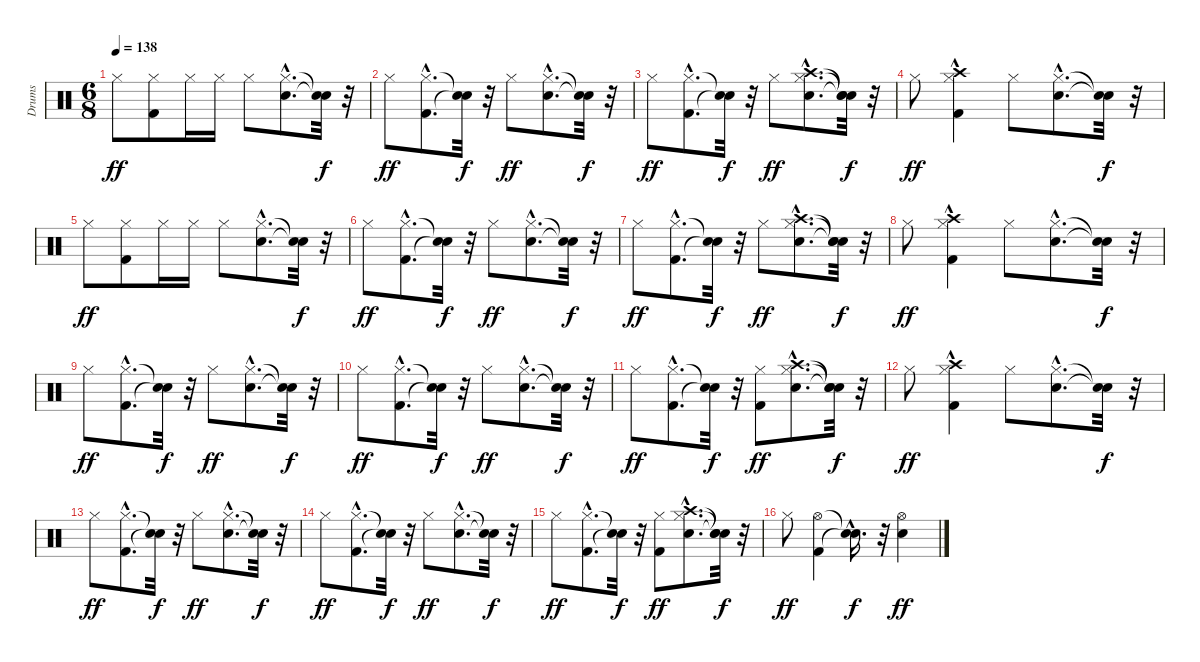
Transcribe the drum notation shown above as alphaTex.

\track ("Drums" "Drums") {instrument percussion}
\staff {score}
\articulation defaults
\ts (6 8)
\tempo 138
\clef neutral
\ks c "Hi-Hat (closed)".8{dy ff}
("Kick (hit) 2" "Hi-Hat (closed)").8 "Hi-Hat (closed)".16 "Hi-Hat (closed)".16 "Hi-Hat (closed)".8 ("Snare (hit) 2"{hac} "Hi-Hat (closed)"{hac}).8{d} ("Snare (hit)"{t} "Snare (hit)"{t}).32{dy f} r.32 |
"Hi-Hat (closed)".8{dy ff} ("Kick (hit) 2"{hac} "Hi-Hat (closed)"{hac}).8{d} ("Snare (hit)"{t} "Snare (hit)"{t}).32{dy f} r.32 "Hi-Hat (closed)".8{dy ff} ("Snare (hit) 2"{hac} "Hi-Hat (closed)"{hac}).8{d} ("Snare (hit)"{t} "Snare (hit)"{t}).32{dy f} r.32 |
"Hi-Hat (closed)".8{dy ff} ("Kick (hit) 2"{hac} "Hi-Hat (closed)"{hac}).8{d} ("Snare (hit)"{t} "Snare (hit)"{t}).32{dy f} r.32 "Hi-Hat (closed)".8{dy ff} ("Snare (hit) 2"{hac} "Hi-Hat (closed)"{hac} "Crash high (hit)"{hac}).8{d} ("Snare (hit)"{t} "Snare (hit)"{t} "Snare (hit)"{t}).32{dy f} r.32 |
"Hi-Hat (closed)".8{dy ff} ("Kick (hit) 2"{hac} "Hi-Hat (closed)"{hac} "Crash high (hit)").4 "Hi-Hat (closed)".8 ("Snare (hit) 2"{hac} "Hi-Hat (closed)"{hac}).8{d} ("Snare (hit)"{t} "Snare (hit)"{t}).32{dy f} r.32 |
"Hi-Hat (closed)".8{dy ff} ("Kick (hit) 2" "Hi-Hat (closed)").8 "Hi-Hat (closed)".16 "Hi-Hat (closed)".16 "Hi-Hat (closed)".8 ("Snare (hit) 2"{hac} "Hi-Hat (closed)"{hac}).8{d} ("Snare (hit)"{t} "Snare (hit)"{t}).32{dy f} r.32 |
"Hi-Hat (closed)".8{dy ff} ("Kick (hit) 2"{hac} "Hi-Hat (closed)"{hac}).8{d} ("Snare (hit)"{t} "Snare (hit)"{t}).32{dy f} r.32 "Hi-Hat (closed)".8{dy ff} ("Snare (hit) 2"{hac} "Hi-Hat (closed)"{hac}).8{d} ("Snare (hit)"{t} "Snare (hit)"{t}).32{dy f} r.32 |
"Hi-Hat (closed)".8{dy ff} ("Kick (hit) 2"{hac} "Hi-Hat (closed)"{hac}).8{d} ("Snare (hit)"{t} "Snare (hit)"{t}).32{dy f} r.32 "Hi-Hat (closed)".8{dy ff} ("Snare (hit) 2"{hac} "Hi-Hat (closed)"{hac} "Crash high (hit)"{hac}).8{d} ("Snare (hit)"{t} "Snare (hit)"{t} "Snare (hit)"{t}).32{dy f} r.32 |
"Hi-Hat (closed)".8{dy ff} ("Kick (hit) 2"{hac} "Hi-Hat (closed)"{hac} "Crash high (hit)").4 "Hi-Hat (closed)".8 ("Snare (hit) 2"{hac} "Hi-Hat (closed)"{hac}).8{d} ("Snare (hit)"{t} "Snare (hit)"{t}).32{dy f} r.32 |
"Hi-Hat (closed)".8{dy ff} ("Kick (hit) 2"{hac} "Hi-Hat (closed)"{hac}).8{d} ("Snare (hit)"{t} "Snare (hit)"{t}).32{dy f} r.32 "Hi-Hat (closed)".8{dy ff} ("Snare (hit) 2"{hac} "Hi-Hat (closed)"{hac}).8{d} ("Snare (hit)"{t} "Snare (hit)"{t}).32{dy f} r.32 |
"Hi-Hat (closed)".8{dy ff} ("Kick (hit) 2"{hac} "Hi-Hat (closed)"{hac}).8{d} ("Snare (hit)"{t} "Snare (hit)"{t}).32{dy f} r.32 "Hi-Hat (closed)".8{dy ff} ("Snare (hit) 2"{hac} "Hi-Hat (closed)"{hac}).8{d} ("Snare (hit)"{t} "Snare (hit)"{t}).32{dy f} r.32 |
"Hi-Hat (closed)".8{dy ff} ("Kick (hit) 2"{hac} "Hi-Hat (closed)"{hac}).8{d} ("Snare (hit)"{t} "Snare (hit)"{t}).32{dy f} r.32 ("Kick (hit) 2" "Hi-Hat (closed)").8{dy ff} ("Snare (hit) 2"{hac} "Hi-Hat (closed)"{hac} "Crash high (hit)"{hac}).8{d} ("Snare (hit)"{t} "Snare (hit)"{t} "Snare (hit)"{t}).32{dy f} r.32 |
"Hi-Hat (closed)".8{dy ff} ("Kick (hit) 2"{hac} "Hi-Hat (closed)"{hac} "Crash high (hit)").4 "Hi-Hat (closed)".8 ("Snare (hit) 2"{hac} "Hi-Hat (closed)"{hac}).8{d} ("Snare (hit)"{t} "Snare (hit)"{t}).32{dy f} r.32 |
"Hi-Hat (closed)".8{dy ff} ("Kick (hit) 2"{hac} "Hi-Hat (closed)"{hac}).8{d} ("Snare (hit)"{t} "Snare (hit)"{t}).32{dy f} r.32 "Hi-Hat (closed)".8{dy ff} ("Snare (hit) 2"{hac} "Hi-Hat (closed)"{hac}).8{d} ("Snare (hit)"{t} "Snare (hit)"{t}).32{dy f} r.32 |
"Hi-Hat (closed)".8{dy ff} ("Kick (hit) 2"{hac} "Hi-Hat (closed)"{hac}).8{d} ("Snare (hit)"{t} "Snare (hit)"{t}).32{dy f} r.32 "Hi-Hat (closed)".8{dy ff} ("Snare (hit) 2"{hac} "Hi-Hat (closed)"{hac}).8{d} ("Snare (hit)"{t} "Snare (hit)"{t}).32{dy f} r.32 |
"Hi-Hat (closed)".8{dy ff} ("Kick (hit) 2"{hac} "Hi-Hat (closed)"{hac}).8{d} ("Snare (hit)"{t} "Snare (hit)"{t}).32{dy f} r.32 ("Kick (hit) 2" "Hi-Hat (closed)").8{dy ff} ("Snare (hit) 2"{hac} "Hi-Hat (closed)"{hac} "Crash high (hit)"{hac}).8{d} ("Snare (hit)"{t} "Snare (hit)"{t} "Snare (hit)"{t}).32{dy f} r.32 |
"Hi-Hat (closed)".8{dy ff} ("Kick (hit) 2" "Hi-Hat (open)").4 ("Snare (hit)"{hac t} "Snare (hit)"{hac t}).16{d dy f} r.32 ("Snare (hit) 2" "Hi-Hat (open)").4{dy ff}
